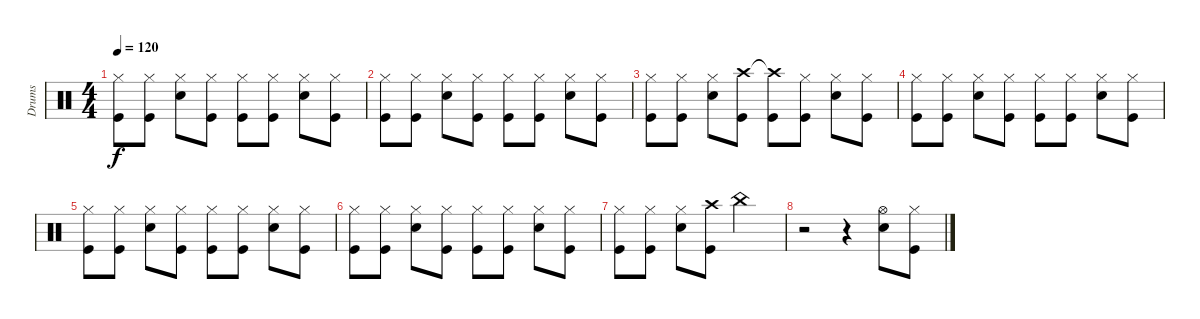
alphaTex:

\track ("Drums" "Drums") {instrument percussion}
\staff {score}
\articulation defaults
\ts (4 4)
\tempo 120
\clef neutral
\ks c
("Hi-Hat (closed)" "Kick (hit)").8{dy f} ("Hi-Hat (closed)" "Kick (hit)").8 ("Hi-Hat (closed)" "Snare (hit) 2").8 ("Hi-Hat (closed)" "Kick (hit)").8 ("Hi-Hat (closed)" "Kick (hit)").8 ("Hi-Hat (closed)" "Kick (hit)").8 ("Hi-Hat (closed)" "Snare (hit) 2").8 ("Hi-Hat (closed)" "Kick (hit)").8 |
("Hi-Hat (closed)" "Kick (hit)").8 ("Hi-Hat (closed)" "Kick (hit)").8 ("Hi-Hat (closed)" "Snare (hit) 2").8 ("Hi-Hat (closed)" "Kick (hit)").8 ("Hi-Hat (closed)" "Kick (hit)").8 ("Hi-Hat (closed)" "Kick (hit)").8 ("Hi-Hat (closed)" "Snare (hit) 2").8 ("Hi-Hat (closed)" "Kick (hit)").8 |
("Hi-Hat (closed)" "Kick (hit)").8 ("Hi-Hat (closed)" "Kick (hit)").8 ("Hi-Hat (closed)" "Snare (hit) 2").8 ("Crash high (hit)" "Kick (hit)").8 ("Crash high (hit)"{t} "Kick (hit)").8 ("Hi-Hat (closed)" "Kick (hit)").8 ("Hi-Hat (closed)" "Snare (hit) 2").8 ("Hi-Hat (closed)" "Kick (hit)").8 |
("Hi-Hat (closed)" "Kick (hit)").8 ("Hi-Hat (closed)" "Kick (hit)").8 ("Hi-Hat (closed)" "Snare (hit) 2").8 ("Hi-Hat (closed)" "Kick (hit)").8 ("Hi-Hat (closed)" "Kick (hit)").8 ("Hi-Hat (closed)" "Kick (hit)").8 ("Hi-Hat (closed)" "Snare (hit) 2").8 ("Hi-Hat (closed)" "Kick (hit)").8 |
("Hi-Hat (closed)" "Kick (hit)").8 ("Hi-Hat (closed)" "Kick (hit)").8 ("Hi-Hat (closed)" "Snare (hit) 2").8 ("Hi-Hat (closed)" "Kick (hit)").8 ("Hi-Hat (closed)" "Kick (hit)").8 ("Hi-Hat (closed)" "Kick (hit)").8 ("Hi-Hat (closed)" "Snare (hit) 2").8 ("Hi-Hat (closed)" "Kick (hit)").8 |
("Hi-Hat (closed)" "Kick (hit)").8 ("Hi-Hat (closed)" "Kick (hit)").8 ("Hi-Hat (closed)" "Snare (hit) 2").8 ("Hi-Hat (closed)" "Kick (hit)").8 ("Hi-Hat (closed)" "Kick (hit)").8 ("Hi-Hat (closed)" "Kick (hit)").8 ("Hi-Hat (closed)" "Snare (hit) 2").8 ("Hi-Hat (closed)" "Kick (hit)").8 |
("Hi-Hat (closed)" "Kick (hit)").8 ("Hi-Hat (closed)" "Kick (hit)").8 ("Hi-Hat (closed)" "Snare (hit) 2").8 ("Crash high (hit)" "Kick (hit)").8 "China (hit)".2 |
r.2 r.4 ("Hi-Hat (open)" "Snare (hit) 2").8 ("Hi-Hat (closed)" "Kick (hit)").8
